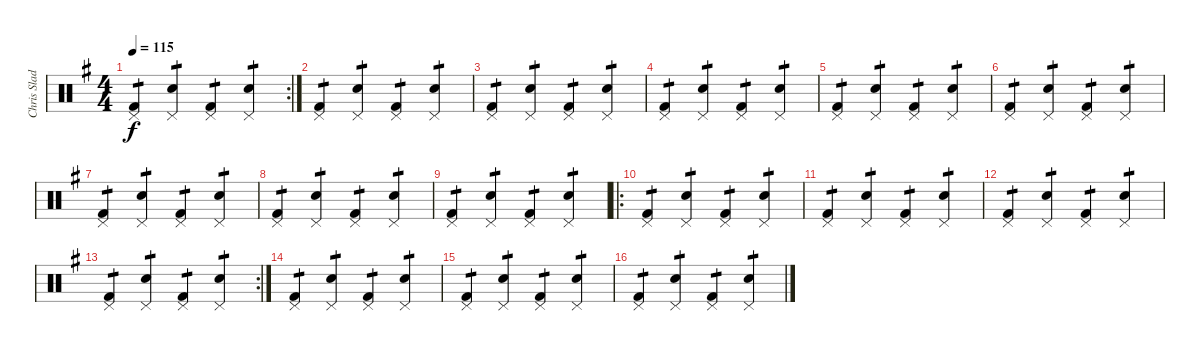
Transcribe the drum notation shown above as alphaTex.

\track ("Chris Slade" "Chris Slad") {instrument percussion}
\staff {score}
\articulation defaults
\rc 2
\ts (4 4)
\tempo 115
\clef neutral
\ks g
("Kick (hit) 2" "Pedal Hi-Hat (hit)").4{tp 1 dy f} ("Snare (hit) 2" "Pedal Hi-Hat (hit)").4{tp 1} ("Kick (hit) 2" "Pedal Hi-Hat (hit)").4{tp 1} ("Snare (hit) 2" "Pedal Hi-Hat (hit)").4{tp 1} |
("Kick (hit) 2" "Pedal Hi-Hat (hit)").4{tp 1} ("Snare (hit) 2" "Pedal Hi-Hat (hit)").4{tp 1} ("Kick (hit) 2" "Pedal Hi-Hat (hit)").4{tp 1} ("Snare (hit) 2" "Pedal Hi-Hat (hit)").4{tp 1} |
("Kick (hit) 2" "Pedal Hi-Hat (hit)").4{tp 1} ("Snare (hit) 2" "Pedal Hi-Hat (hit)").4{tp 1} ("Kick (hit) 2" "Pedal Hi-Hat (hit)").4{tp 1} ("Snare (hit) 2" "Pedal Hi-Hat (hit)").4{tp 1} |
("Kick (hit) 2" "Pedal Hi-Hat (hit)").4{tp 1} ("Snare (hit) 2" "Pedal Hi-Hat (hit)").4{tp 1} ("Kick (hit) 2" "Pedal Hi-Hat (hit)").4{tp 1} ("Snare (hit) 2" "Pedal Hi-Hat (hit)").4{tp 1} |
("Kick (hit) 2" "Pedal Hi-Hat (hit)").4{tp 1} ("Snare (hit) 2" "Pedal Hi-Hat (hit)").4{tp 1} ("Kick (hit) 2" "Pedal Hi-Hat (hit)").4{tp 1} ("Snare (hit) 2" "Pedal Hi-Hat (hit)").4{tp 1} |
("Kick (hit) 2" "Pedal Hi-Hat (hit)").4{tp 1} ("Snare (hit) 2" "Pedal Hi-Hat (hit)").4{tp 1} ("Kick (hit) 2" "Pedal Hi-Hat (hit)").4{tp 1} ("Snare (hit) 2" "Pedal Hi-Hat (hit)").4{tp 1} |
("Kick (hit) 2" "Pedal Hi-Hat (hit)").4{tp 1} ("Snare (hit) 2" "Pedal Hi-Hat (hit)").4{tp 1} ("Kick (hit) 2" "Pedal Hi-Hat (hit)").4{tp 1} ("Snare (hit) 2" "Pedal Hi-Hat (hit)").4{tp 1} |
("Kick (hit) 2" "Pedal Hi-Hat (hit)").4{tp 1} ("Snare (hit) 2" "Pedal Hi-Hat (hit)").4{tp 1} ("Kick (hit) 2" "Pedal Hi-Hat (hit)").4{tp 1} ("Snare (hit) 2" "Pedal Hi-Hat (hit)").4{tp 1} |
("Kick (hit) 2" "Pedal Hi-Hat (hit)").4{tp 1} ("Snare (hit) 2" "Pedal Hi-Hat (hit)").4{tp 1} ("Kick (hit) 2" "Pedal Hi-Hat (hit)").4{tp 1} ("Snare (hit) 2" "Pedal Hi-Hat (hit)").4{tp 1} |
\ro
("Kick (hit) 2" "Pedal Hi-Hat (hit)").4{tp 1} ("Snare (hit) 2" "Pedal Hi-Hat (hit)").4{tp 1} ("Kick (hit) 2" "Pedal Hi-Hat (hit)").4{tp 1} ("Snare (hit) 2" "Pedal Hi-Hat (hit)").4{tp 1} |
("Kick (hit) 2" "Pedal Hi-Hat (hit)").4{tp 1} ("Snare (hit) 2" "Pedal Hi-Hat (hit)").4{tp 1} ("Kick (hit) 2" "Pedal Hi-Hat (hit)").4{tp 1} ("Snare (hit) 2" "Pedal Hi-Hat (hit)").4{tp 1} |
("Kick (hit) 2" "Pedal Hi-Hat (hit)").4{tp 1} ("Snare (hit) 2" "Pedal Hi-Hat (hit)").4{tp 1} ("Kick (hit) 2" "Pedal Hi-Hat (hit)").4{tp 1} ("Snare (hit) 2" "Pedal Hi-Hat (hit)").4{tp 1} |
\rc 2
("Kick (hit) 2" "Pedal Hi-Hat (hit)").4{tp 1} ("Snare (hit) 2" "Pedal Hi-Hat (hit)").4{tp 1} ("Kick (hit) 2" "Pedal Hi-Hat (hit)").4{tp 1} ("Snare (hit) 2" "Pedal Hi-Hat (hit)").4{tp 1} |
("Kick (hit) 2" "Pedal Hi-Hat (hit)").4{tp 1} ("Snare (hit) 2" "Pedal Hi-Hat (hit)").4{tp 1} ("Kick (hit) 2" "Pedal Hi-Hat (hit)").4{tp 1} ("Snare (hit) 2" "Pedal Hi-Hat (hit)").4{tp 1} |
("Kick (hit) 2" "Pedal Hi-Hat (hit)").4{tp 1} ("Snare (hit) 2" "Pedal Hi-Hat (hit)").4{tp 1} ("Kick (hit) 2" "Pedal Hi-Hat (hit)").4{tp 1} ("Snare (hit) 2" "Pedal Hi-Hat (hit)").4{tp 1} |
("Kick (hit) 2" "Pedal Hi-Hat (hit)").4{tp 1} ("Snare (hit) 2" "Pedal Hi-Hat (hit)").4{tp 1} ("Kick (hit) 2" "Pedal Hi-Hat (hit)").4{tp 1} ("Snare (hit) 2" "Pedal Hi-Hat (hit)").4{tp 1}
